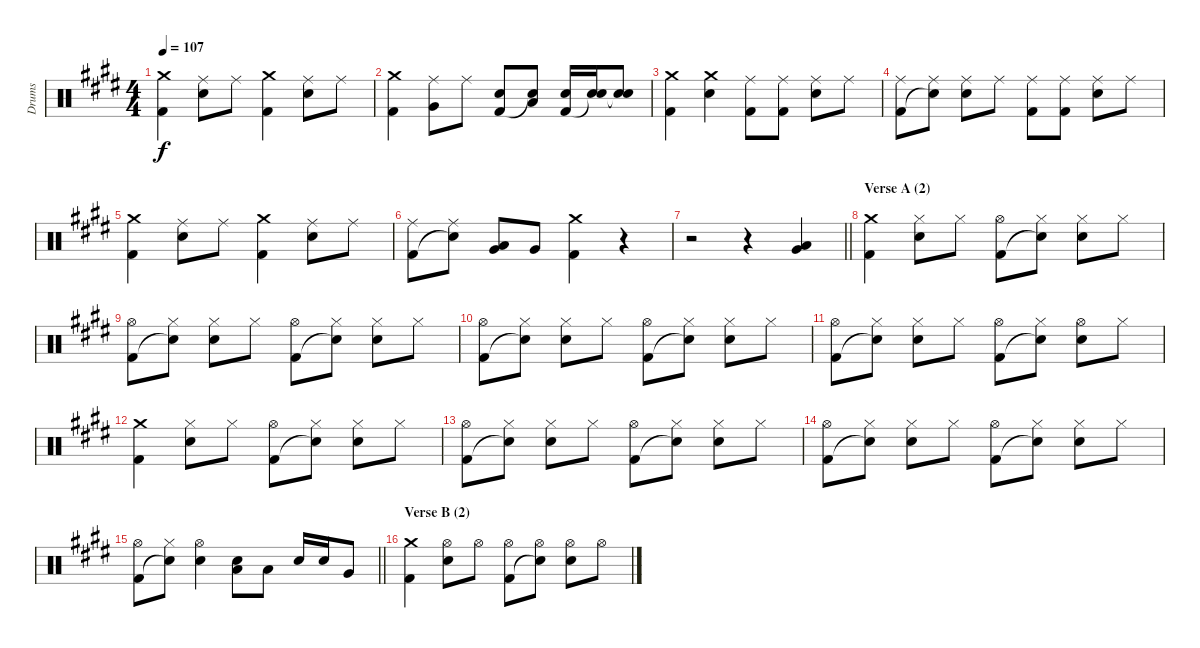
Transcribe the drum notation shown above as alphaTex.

\track ("Drums" "Drums") {instrument percussion}
\staff {score}
\articulation defaults
\ts (4 4)
\tempo 107
\clef neutral
\ks e
("Crash medium (hit)" "Kick (hit) 2").4{dy f} ("Ride (middle)" "Electric Snare (hit)").8 "Ride (middle)".8 ("Crash medium (hit)" "Kick (hit) 2").4 ("Ride (middle)" "Electric Snare (hit)").8 "Ride (middle)".8 |
("Crash medium (hit)" "Kick (hit) 2").4 ("Ride (middle)" "Very Low Tom (hit)").8 "Ride (middle)".8 ("Electric Snare (hit)" "Kick (hit) 2").8 ("Low Tom (hit)" "Snare (hit)"{t}).8 ("Electric Snare (hit)" "Kick (hit) 2").16 ("Electric Snare (hit)" "Snare (hit)"{t}).16 ("Electric Snare (hit)" "Snare (hit)"{t}).8 |
("Crash medium (hit)" "Kick (hit) 2").4 ("Crash medium (hit)" "Electric Snare (hit)").4 ("Ride (middle)" "Kick (hit) 2").8 ("Ride (middle)" "Kick (hit) 2").8 ("Ride (middle)" "Electric Snare (hit)").8 "Ride (middle)".8 |
("Ride (middle)" "Kick (hit) 2").8 ("Ride (middle)" "Snare (hit)"{t}).8 ("Ride (middle)" "Electric Snare (hit)").8 "Ride (middle)".8 ("Ride (middle)" "Kick (hit) 2").8 ("Ride (middle)" "Kick (hit) 2").8 ("Ride (middle)" "Electric Snare (hit)").8 "Ride (middle)".8 |
("Crash medium (hit)" "Kick (hit) 2").4 ("Ride (middle)" "Electric Snare (hit)").8 "Ride (middle)".8 ("Crash medium (hit)" "Kick (hit) 2").4 ("Ride (middle)" "Electric Snare (hit)").8 "Ride (middle)".8 |
("Ride (middle)" "Kick (hit) 2").8 ("Ride (middle)" "Snare (hit)"{t}).8 ("Low Tom (hit)" "Very Low Tom (hit)").8 "Very Low Tom (hit)".8 ("Crash medium (hit)" "Kick (hit) 2").4 r.4 |
\barLineRight lightlight
r.2 r.4 ("Very Low Tom (hit)" "Low Floor Tom (hit)").4 |
\section ("" "Verse A (2)")
("Crash medium (hit)" "Kick (hit) 2").4 ("Hi-Hat (closed)" "Electric Snare (hit)").8 "Hi-Hat (closed)".8 ("Hi-Hat (open)" "Kick (hit) 2").8 ("Hi-Hat (closed)" "Snare (hit)"{t}).8 ("Hi-Hat (closed)" "Electric Snare (hit)").8 "Hi-Hat (closed)".8 |
("Hi-Hat (open)" "Kick (hit) 2").8 ("Hi-Hat (closed)" "Snare (hit)"{t}).8 ("Hi-Hat (closed)" "Electric Snare (hit)").8 "Hi-Hat (closed)".8 ("Hi-Hat (open)" "Kick (hit) 2").8 ("Hi-Hat (closed)" "Snare (hit)"{t}).8 ("Hi-Hat (closed)" "Electric Snare (hit)").8 "Hi-Hat (closed)".8 |
("Hi-Hat (open)" "Kick (hit) 2").8 ("Hi-Hat (closed)" "Snare (hit)"{t}).8 ("Hi-Hat (closed)" "Electric Snare (hit)").8 "Hi-Hat (closed)".8 ("Hi-Hat (open)" "Kick (hit) 2").8 ("Hi-Hat (closed)" "Snare (hit)"{t}).8 ("Hi-Hat (closed)" "Electric Snare (hit)").8 "Hi-Hat (closed)".8 |
("Hi-Hat (open)" "Kick (hit) 2").8 ("Hi-Hat (closed)" "Snare (hit)"{t}).8 ("Hi-Hat (closed)" "Electric Snare (hit)").8 "Hi-Hat (closed)".8 ("Hi-Hat (open)" "Kick (hit) 2").8 ("Hi-Hat (closed)" "Snare (hit)"{t}).8 ("Hi-Hat (open)" "Electric Snare (hit)").8 "Hi-Hat (closed)".8 |
("Crash medium (hit)" "Kick (hit) 2").4 ("Hi-Hat (closed)" "Electric Snare (hit)").8 "Hi-Hat (closed)".8 ("Hi-Hat (open)" "Kick (hit) 2").8 ("Hi-Hat (closed)" "Snare (hit)"{t}).8 ("Hi-Hat (closed)" "Electric Snare (hit)").8 "Hi-Hat (closed)".8 |
("Hi-Hat (open)" "Kick (hit) 2").8 ("Hi-Hat (closed)" "Snare (hit)"{t}).8 ("Hi-Hat (closed)" "Electric Snare (hit)").8 "Hi-Hat (closed)".8 ("Hi-Hat (open)" "Kick (hit) 2").8 ("Hi-Hat (closed)" "Snare (hit)"{t}).8 ("Hi-Hat (closed)" "Electric Snare (hit)").8 "Hi-Hat (closed)".8 |
("Hi-Hat (open)" "Kick (hit) 2").8 ("Hi-Hat (closed)" "Snare (hit)"{t}).8 ("Hi-Hat (closed)" "Electric Snare (hit)").8 "Hi-Hat (closed)".8 ("Hi-Hat (open)" "Kick (hit) 2").8 ("Hi-Hat (closed)" "Snare (hit)"{t}).8 ("Hi-Hat (closed)" "Electric Snare (hit)").8 "Hi-Hat (closed)".8 |
\barLineRight lightlight
("Hi-Hat (open)" "Kick (hit) 2").8 ("Hi-Hat (closed)" "Snare (hit)"{t}).8 ("Hi-Hat (open)" "Electric Snare (hit)").4 ("Electric Snare (hit)" "Low Floor Tom (hit)").8 "Low Tom (hit)".8 "Electric Snare (hit)".16 "Electric Snare (hit)".16 "Very Low Tom (hit)".8 |
\section ("" "Verse B (2)")
("Crash medium (hit)" "Kick (hit) 2").4 ("Hi-Hat (open)" "Electric Snare (hit)").8 "Hi-Hat (open)".8 ("Hi-Hat (open)" "Kick (hit) 2").8 ("Hi-Hat (open)" "Snare (hit)"{t}).8 ("Hi-Hat (open)" "Electric Snare (hit)").8 "Hi-Hat (open)".8
